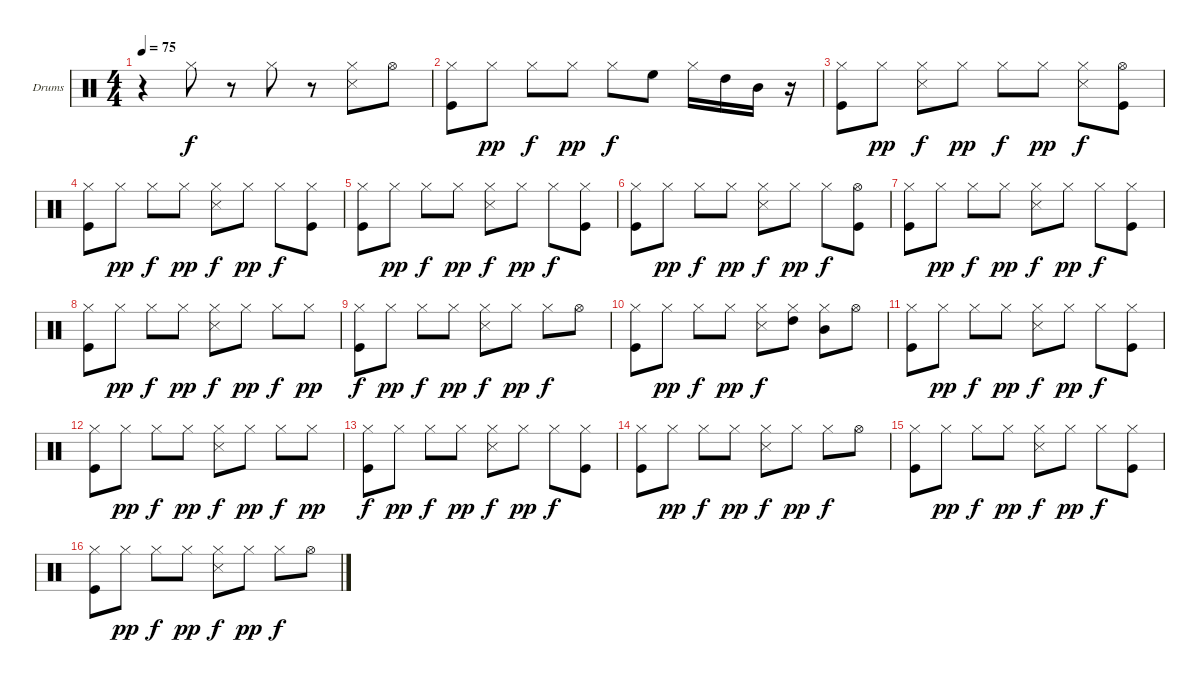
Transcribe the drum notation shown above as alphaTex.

\bracketExtendMode groupsimilarinstruments
\firstSystemTrackNameOrientation horizontal
\otherSystemsTrackNameOrientation horizontal
\track ("Drumkit" "Drums") {instrument percussion}
\staff {score}
\articulation defaults
\ts (4 4)
\tempo 75
\clef neutral
\ks c
r.4{dy f} "Hi-Hat (closed)".8 r.8 "Hi-Hat (closed)".8 r.8 ("Snare (side stick) 3" "Hi-Hat (closed)").8 "Hi-Hat (open)".8 |
("Hi-Hat (closed)" "Kick (hit)").8 "Hi-Hat (closed)".8{dy pp} "Hi-Hat (closed)".8{dy f} "Hi-Hat (closed)".8{dy pp} "Hi-Hat (closed)".8{dy f} "High Floor Tom (hit)".8 "Hi-Hat (closed)".16 "High Tom (hit)".16 "Mid Tom (hit)".16 r.16 |
("Kick (hit)" "Hi-Hat (closed)").8 "Hi-Hat (closed)".8{dy pp} ("Snare (side stick) 3" "Hi-Hat (closed)").8{dy f} "Hi-Hat (closed)".8{dy pp} "Hi-Hat (closed)".8{dy f} "Hi-Hat (closed)".8{dy pp} ("Snare (side stick) 3" "Hi-Hat (closed)").8{dy f} ("Kick (hit)" "Hi-Hat (open)").8 |
("Kick (hit)" "Hi-Hat (closed)").8 "Hi-Hat (closed)".8{dy pp} "Hi-Hat (closed)".8{dy f} "Hi-Hat (closed)".8{dy pp} ("Snare (side stick) 3" "Hi-Hat (closed)").8{dy f} "Hi-Hat (closed)".8{dy pp} "Hi-Hat (closed)".8{dy f} ("Kick (hit)" "Hi-Hat (closed)").8 |
("Hi-Hat (closed)" "Kick (hit)").8 "Hi-Hat (closed)".8{dy pp} "Hi-Hat (closed)".8{dy f} "Hi-Hat (closed)".8{dy pp} ("Snare (side stick) 3" "Hi-Hat (closed)").8{dy f} "Hi-Hat (closed)".8{dy pp} "Hi-Hat (closed)".8{dy f} ("Kick (hit)" "Hi-Hat (closed)").8 |
("Hi-Hat (closed)" "Kick (hit)").8 "Hi-Hat (closed)".8{dy pp} "Hi-Hat (closed)".8{dy f} "Hi-Hat (closed)".8{dy pp} ("Hi-Hat (closed)" "Snare (side stick) 3").8{dy f} "Hi-Hat (closed)".8{dy pp} "Hi-Hat (closed)".8{dy f} ("Kick (hit)" "Hi-Hat (open)").8 |
("Kick (hit)" "Hi-Hat (closed)").8 "Hi-Hat (closed)".8{dy pp} "Hi-Hat (closed)".8{dy f} "Hi-Hat (closed)".8{dy pp} ("Snare (side stick) 3" "Hi-Hat (closed)").8{dy f} "Hi-Hat (closed)".8{dy pp} "Hi-Hat (closed)".8{dy f} ("Kick (hit)" "Hi-Hat (closed)").8 |
("Kick (hit)" "Hi-Hat (closed)").8 "Hi-Hat (closed)".8{dy pp} "Hi-Hat (closed)".8{dy f} "Hi-Hat (closed)".8{dy pp} ("Snare (side stick) 3" "Hi-Hat (closed)").8{dy f} "Hi-Hat (closed)".8{dy pp} "Hi-Hat (closed)".8{dy f} "Hi-Hat (closed)".8{dy pp} |
("Kick (hit)" "Hi-Hat (closed)").8{dy f} "Hi-Hat (closed)".8{dy pp} "Hi-Hat (closed)".8{dy f} "Hi-Hat (closed)".8{dy pp} ("Snare (side stick) 3" "Hi-Hat (closed)").8{dy f} "Hi-Hat (closed)".8{dy pp} "Hi-Hat (closed)".8{dy f} "Hi-Hat (open)".8 |
("Kick (hit)" "Hi-Hat (closed)").8 "Hi-Hat (closed)".8{dy pp} "Hi-Hat (closed)".8{dy f} "Hi-Hat (closed)".8{dy pp} ("Snare (side stick) 3" "Hi-Hat (closed)").8{dy f} ("High Tom (hit)" "Hi-Hat (closed)").8 ("Mid Tom (hit)" "Hi-Hat (closed)").8 "Hi-Hat (open)".8 |
("Kick (hit)" "Hi-Hat (closed)").8 "Hi-Hat (closed)".8{dy pp} "Hi-Hat (closed)".8{dy f} "Hi-Hat (closed)".8{dy pp} ("Snare (side stick) 3" "Hi-Hat (closed)").8{dy f} "Hi-Hat (closed)".8{dy pp} "Hi-Hat (closed)".8{dy f} ("Kick (hit)" "Hi-Hat (closed)").8 |
("Kick (hit)" "Hi-Hat (closed)").8 "Hi-Hat (closed)".8{dy pp} "Hi-Hat (closed)".8{dy f} "Hi-Hat (closed)".8{dy pp} ("Snare (side stick) 3" "Hi-Hat (closed)").8{dy f} "Hi-Hat (closed)".8{dy pp} "Hi-Hat (closed)".8{dy f} "Hi-Hat (closed)".8{dy pp} |
("Kick (hit)" "Hi-Hat (closed)").8{dy f} "Hi-Hat (closed)".8{dy pp} "Hi-Hat (closed)".8{dy f} "Hi-Hat (closed)".8{dy pp} ("Snare (side stick) 3" "Hi-Hat (closed)").8{dy f} "Hi-Hat (closed)".8{dy pp} "Hi-Hat (closed)".8{dy f} ("Kick (hit)" "Hi-Hat (closed)").8 |
("Kick (hit)" "Hi-Hat (closed)").8 "Hi-Hat (closed)".8{dy pp} "Hi-Hat (closed)".8{dy f} "Hi-Hat (closed)".8{dy pp} ("Snare (side stick) 3" "Hi-Hat (closed)").8{dy f} "Hi-Hat (closed)".8{dy pp} "Hi-Hat (closed)".8{dy f} "Hi-Hat (open)".8 |
("Kick (hit)" "Hi-Hat (closed)").8 "Hi-Hat (closed)".8{dy pp} "Hi-Hat (closed)".8{dy f} "Hi-Hat (closed)".8{dy pp} ("Snare (side stick) 3" "Hi-Hat (closed)").8{dy f} "Hi-Hat (closed)".8{dy pp} "Hi-Hat (closed)".8{dy f} ("Kick (hit)" "Hi-Hat (closed)").8 |
("Kick (hit)" "Hi-Hat (closed)").8 "Hi-Hat (closed)".8{dy pp} "Hi-Hat (closed)".8{dy f} "Hi-Hat (closed)".8{dy pp} ("Snare (side stick) 3" "Hi-Hat (closed)").8{dy f} "Hi-Hat (closed)".8{dy pp} "Hi-Hat (closed)".8{dy f} "Hi-Hat (open)".8
